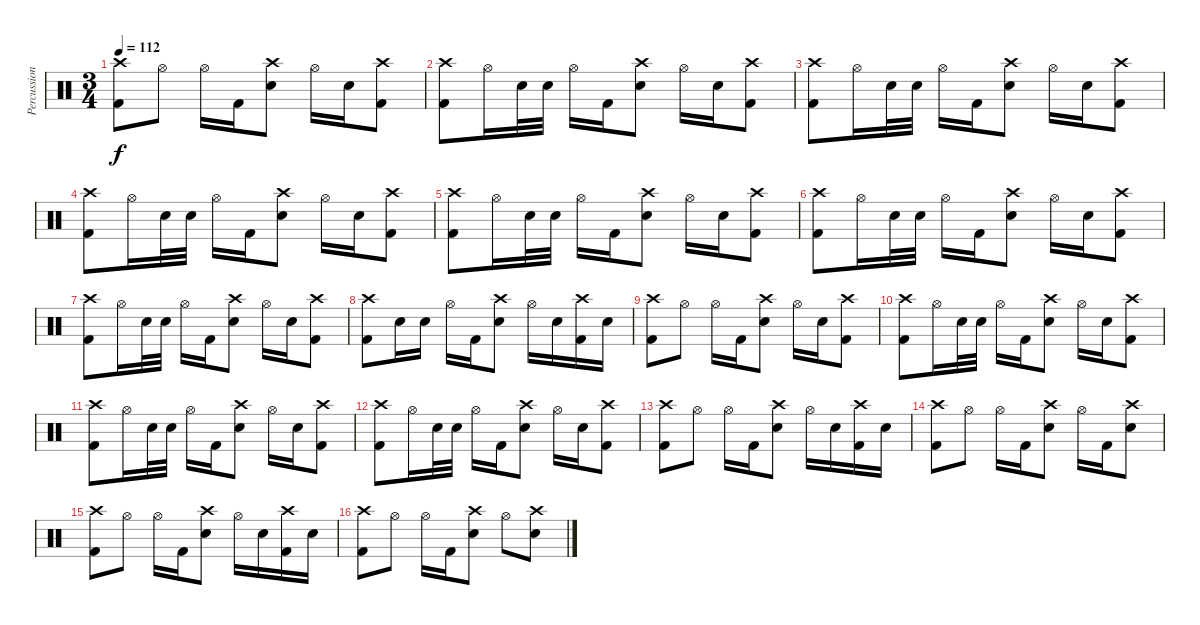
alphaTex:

\track ("Percussions" "Percussion") {instrument percussion}
\staff {score}
\articulation defaults
\ts (3 4)
\tempo 112
\clef neutral
\ks c
("Kick (hit) 2" "Crash high (hit)").8{dy f} "Hi-Hat (open)".8 "Hi-Hat (open)".16 "Kick (hit) 2".16 ("Electric Snare (hit)" "Crash high (hit)").8 "Hi-Hat (open)".16 "Electric Snare (hit)".16 ("Kick (hit) 2" "Crash high (hit)").8 |
("Kick (hit) 2" "Crash high (hit)").8 "Hi-Hat (open)".16 "Electric Snare (hit)".32 "Electric Snare (hit)".32 "Hi-Hat (open)".16 "Kick (hit) 2".16 ("Electric Snare (hit)" "Crash high (hit)").8 "Hi-Hat (open)".16 "Electric Snare (hit)".16 ("Kick (hit) 2" "Crash high (hit)").8 |
("Kick (hit) 2" "Crash high (hit)").8 "Hi-Hat (open)".16 "Electric Snare (hit)".32 "Electric Snare (hit)".32 "Hi-Hat (open)".16 "Kick (hit) 2".16 ("Electric Snare (hit)" "Crash high (hit)").8 "Hi-Hat (open)".16 "Electric Snare (hit)".16 ("Kick (hit) 2" "Crash high (hit)").8 |
("Kick (hit) 2" "Crash high (hit)").8 "Hi-Hat (open)".16 "Electric Snare (hit)".32 "Electric Snare (hit)".32 "Hi-Hat (open)".16 "Kick (hit) 2".16 ("Electric Snare (hit)" "Crash high (hit)").8 "Hi-Hat (open)".16 "Electric Snare (hit)".16 ("Kick (hit) 2" "Crash high (hit)").8 |
("Kick (hit) 2" "Crash high (hit)").8 "Hi-Hat (open)".16 "Electric Snare (hit)".32 "Electric Snare (hit)".32 "Hi-Hat (open)".16 "Kick (hit) 2".16 ("Electric Snare (hit)" "Crash high (hit)").8 "Hi-Hat (open)".16 "Electric Snare (hit)".16 ("Kick (hit) 2" "Crash high (hit)").8 |
("Kick (hit) 2" "Crash high (hit)").8 "Hi-Hat (open)".16 "Electric Snare (hit)".32 "Electric Snare (hit)".32 "Hi-Hat (open)".16 "Kick (hit) 2".16 ("Electric Snare (hit)" "Crash high (hit)").8 "Hi-Hat (open)".16 "Electric Snare (hit)".16 ("Kick (hit) 2" "Crash high (hit)").8 |
("Kick (hit) 2" "Crash high (hit)").8 "Hi-Hat (open)".16 "Electric Snare (hit)".32 "Electric Snare (hit)".32 "Hi-Hat (open)".16 "Kick (hit) 2".16 ("Electric Snare (hit)" "Crash high (hit)").8 "Hi-Hat (open)".16 "Electric Snare (hit)".16 ("Kick (hit) 2" "Crash high (hit)").8 |
("Kick (hit) 2" "Crash high (hit)").8 "Electric Snare (hit)".16 "Electric Snare (hit)".16 "Hi-Hat (open)".16 "Kick (hit) 2".16 ("Electric Snare (hit)" "Crash high (hit)").8 "Hi-Hat (open)".16 "Electric Snare (hit)".16 ("Kick (hit) 2" "Crash high (hit)").16 "Electric Snare (hit)".16 |
("Kick (hit) 2" "Crash high (hit)").8 "Hi-Hat (open)".8 "Hi-Hat (open)".16 "Kick (hit) 2".16 ("Electric Snare (hit)" "Crash high (hit)").8 "Hi-Hat (open)".16 "Electric Snare (hit)".16 ("Kick (hit) 2" "Crash high (hit)").8 |
("Kick (hit) 2" "Crash high (hit)").8 "Hi-Hat (open)".16 "Electric Snare (hit)".32 "Electric Snare (hit)".32 "Hi-Hat (open)".16 "Kick (hit) 2".16 ("Electric Snare (hit)" "Crash high (hit)").8 "Hi-Hat (open)".16 "Electric Snare (hit)".16 ("Kick (hit) 2" "Crash high (hit)").8 |
("Kick (hit) 2" "Crash high (hit)").8 "Hi-Hat (open)".16 "Electric Snare (hit)".32 "Electric Snare (hit)".32 "Hi-Hat (open)".16 "Kick (hit) 2".16 ("Electric Snare (hit)" "Crash high (hit)").8 "Hi-Hat (open)".16 "Electric Snare (hit)".16 ("Kick (hit) 2" "Crash high (hit)").8 |
("Kick (hit) 2" "Crash high (hit)").8 "Hi-Hat (open)".16 "Electric Snare (hit)".32 "Electric Snare (hit)".32 "Hi-Hat (open)".16 "Kick (hit) 2".16 ("Electric Snare (hit)" "Crash high (hit)").8 "Hi-Hat (open)".16 "Electric Snare (hit)".16 ("Kick (hit) 2" "Crash high (hit)").8 |
("Kick (hit) 2" "Crash high (hit)").8 "Hi-Hat (open)".8 "Hi-Hat (open)".16 "Kick (hit) 2".16 ("Electric Snare (hit)" "Crash high (hit)").8 "Hi-Hat (open)".16 "Electric Snare (hit)".16 ("Kick (hit) 2" "Crash high (hit)").16 "Electric Snare (hit)".16 |
("Kick (hit) 2" "Crash high (hit)").8 "Hi-Hat (open)".8 "Hi-Hat (open)".16 "Kick (hit) 2".16 ("Electric Snare (hit)" "Crash high (hit)").8 "Hi-Hat (open)".16 "Kick (hit) 2".16 ("Electric Snare (hit)" "Crash high (hit)").8 |
("Kick (hit) 2" "Crash high (hit)").8 "Hi-Hat (open)".8 "Hi-Hat (open)".16 "Kick (hit) 2".16 ("Electric Snare (hit)" "Crash high (hit)").8 "Hi-Hat (open)".16 "Electric Snare (hit)".16 ("Kick (hit) 2" "Crash high (hit)").16 "Electric Snare (hit)".16 |
("Kick (hit) 2" "Crash high (hit)").8 "Hi-Hat (open)".8 "Hi-Hat (open)".16 "Kick (hit) 2".16 ("Electric Snare (hit)" "Crash high (hit)").8 "Hi-Hat (open)".8 ("Electric Snare (hit)" "Crash high (hit)").8
